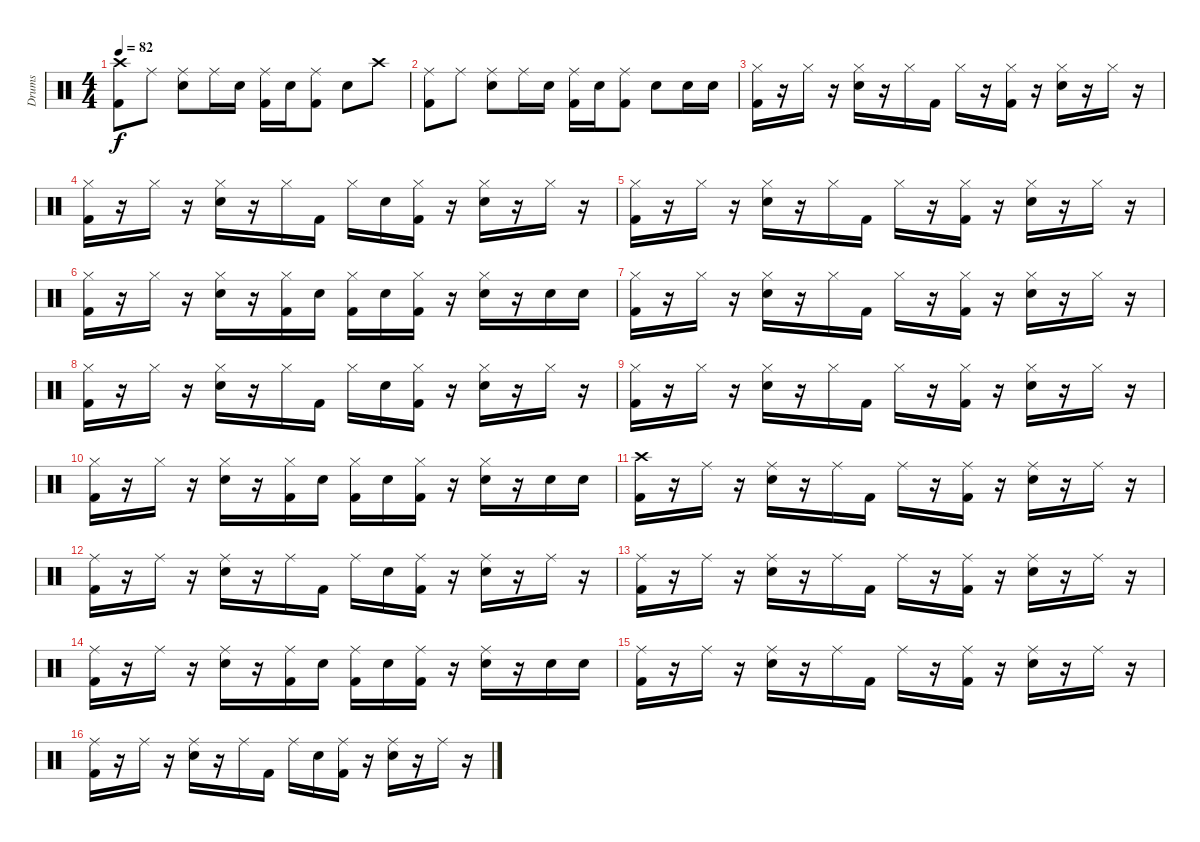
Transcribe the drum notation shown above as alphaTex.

\track ("Drums" "Drums") {instrument percussion}
\staff {score}
\articulation defaults
\ts (4 4)
\tempo 82
\clef neutral
\ks c
("Crash high (hit)" "Kick (hit) 2").8{dy f} "Ride (middle)".8 ("Ride (middle)" "Electric Snare (hit)").8 "Ride (middle)".16 "Electric Snare (hit)".16 ("Ride (middle)" "Kick (hit) 2").16 "Electric Snare (hit)".16 ("Ride (middle)" "Kick (hit) 2").8 "Electric Snare (hit)".8 "Crash high (hit)".8 |
("Ride (middle)" "Kick (hit) 2").8 "Ride (middle)".8 ("Ride (middle)" "Electric Snare (hit)").8 "Ride (middle)".16 "Electric Snare (hit)".16 ("Ride (middle)" "Kick (hit) 2").16 "Electric Snare (hit)".16 ("Ride (middle)" "Kick (hit) 2").8 "Electric Snare (hit)".8 "Electric Snare (hit)".16 "Electric Snare (hit)".16 |
("Hi-Hat (closed)" "Kick (hit) 2").16 r.16 "Hi-Hat (closed)".16 r.16 ("Hi-Hat (closed)" "Electric Snare (hit)").16 r.16 "Hi-Hat (closed)".16 "Kick (hit) 2".16 "Hi-Hat (closed)".16 r.16 ("Hi-Hat (closed)" "Kick (hit) 2").16 r.16 ("Hi-Hat (closed)" "Electric Snare (hit)").16 r.16 "Hi-Hat (closed)".16 r.16 |
("Hi-Hat (closed)" "Kick (hit) 2").16 r.16 "Hi-Hat (closed)".16 r.16 ("Hi-Hat (closed)" "Electric Snare (hit)").16 r.16 "Hi-Hat (closed)".16 "Kick (hit) 2".16 "Hi-Hat (closed)".16 "Electric Snare (hit)".16 ("Hi-Hat (closed)" "Kick (hit) 2").16 r.16 ("Hi-Hat (closed)" "Electric Snare (hit)").16 r.16 "Hi-Hat (closed)".16 r.16 |
("Hi-Hat (closed)" "Kick (hit) 2").16 r.16 "Hi-Hat (closed)".16 r.16 ("Hi-Hat (closed)" "Electric Snare (hit)").16 r.16 "Hi-Hat (closed)".16 "Kick (hit) 2".16 "Hi-Hat (closed)".16 r.16 ("Hi-Hat (closed)" "Kick (hit) 2").16 r.16 ("Hi-Hat (closed)" "Electric Snare (hit)").16 r.16 "Hi-Hat (closed)".16 r.16 |
("Hi-Hat (closed)" "Kick (hit) 2").16 r.16 "Hi-Hat (closed)".16 r.16 ("Hi-Hat (closed)" "Electric Snare (hit)").16 r.16 ("Hi-Hat (closed)" "Kick (hit) 2").16 "Electric Snare (hit)".16 ("Hi-Hat (closed)" "Kick (hit) 2").16 "Electric Snare (hit)".16 ("Hi-Hat (closed)" "Kick (hit) 2").16 r.16 ("Hi-Hat (closed)" "Electric Snare (hit)").16 r.16 "Electric Snare (hit)".16 "Electric Snare (hit)".16 |
("Hi-Hat (closed)" "Kick (hit) 2").16 r.16 "Hi-Hat (closed)".16 r.16 ("Hi-Hat (closed)" "Electric Snare (hit)").16 r.16 "Hi-Hat (closed)".16 "Kick (hit) 2".16 "Hi-Hat (closed)".16 r.16 ("Hi-Hat (closed)" "Kick (hit) 2").16 r.16 ("Hi-Hat (closed)" "Electric Snare (hit)").16 r.16 "Hi-Hat (closed)".16 r.16 |
("Hi-Hat (closed)" "Kick (hit) 2").16 r.16 "Hi-Hat (closed)".16 r.16 ("Hi-Hat (closed)" "Electric Snare (hit)").16 r.16 "Hi-Hat (closed)".16 "Kick (hit) 2".16 "Hi-Hat (closed)".16 "Electric Snare (hit)".16 ("Hi-Hat (closed)" "Kick (hit) 2").16 r.16 ("Hi-Hat (closed)" "Electric Snare (hit)").16 r.16 "Hi-Hat (closed)".16 r.16 |
("Hi-Hat (closed)" "Kick (hit) 2").16 r.16 "Hi-Hat (closed)".16 r.16 ("Hi-Hat (closed)" "Electric Snare (hit)").16 r.16 "Hi-Hat (closed)".16 "Kick (hit) 2".16 "Hi-Hat (closed)".16 r.16 ("Hi-Hat (closed)" "Kick (hit) 2").16 r.16 ("Hi-Hat (closed)" "Electric Snare (hit)").16 r.16 "Hi-Hat (closed)".16 r.16 |
("Hi-Hat (closed)" "Kick (hit) 2").16 r.16 "Hi-Hat (closed)".16 r.16 ("Hi-Hat (closed)" "Electric Snare (hit)").16 r.16 ("Hi-Hat (closed)" "Kick (hit) 2").16 "Electric Snare (hit)".16 ("Hi-Hat (closed)" "Kick (hit) 2").16 "Electric Snare (hit)".16 ("Hi-Hat (closed)" "Kick (hit) 2").16 r.16 ("Hi-Hat (closed)" "Electric Snare (hit)").16 r.16 "Electric Snare (hit)".16 "Electric Snare (hit)".16 |
("Crash high (hit)" "Kick (hit) 2").16 r.16 "Ride (middle)".16 r.16 ("Ride (middle)" "Electric Snare (hit)").16 r.16 "Ride (middle)".16 "Kick (hit) 2".16 "Ride (middle)".16 r.16 ("Ride (middle)" "Kick (hit) 2").16 r.16 ("Ride (middle)" "Electric Snare (hit)").16 r.16 "Ride (middle)".16 r.16 |
("Ride (middle)" "Kick (hit) 2").16 r.16 "Ride (middle)".16 r.16 ("Ride (middle)" "Electric Snare (hit)").16 r.16 "Ride (middle)".16 "Kick (hit) 2".16 "Ride (middle)".16 "Electric Snare (hit)".16 ("Ride (middle)" "Kick (hit) 2").16 r.16 ("Ride (middle)" "Electric Snare (hit)").16 r.16 "Ride (middle)".16 r.16 |
("Ride (middle)" "Kick (hit) 2").16 r.16 "Ride (middle)".16 r.16 ("Ride (middle)" "Electric Snare (hit)").16 r.16 "Ride (middle)".16 "Kick (hit) 2".16 "Ride (middle)".16 r.16 ("Ride (middle)" "Kick (hit) 2").16 r.16 ("Ride (middle)" "Electric Snare (hit)").16 r.16 "Ride (middle)".16 r.16 |
("Ride (middle)" "Kick (hit) 2").16 r.16 "Ride (middle)".16 r.16 ("Ride (middle)" "Electric Snare (hit)").16 r.16 ("Ride (middle)" "Kick (hit) 2").16 "Electric Snare (hit)".16 ("Ride (middle)" "Kick (hit) 2").16 "Electric Snare (hit)".16 ("Ride (middle)" "Kick (hit) 2").16 r.16 ("Ride (middle)" "Electric Snare (hit)").16 r.16 "Electric Snare (hit)".16 "Electric Snare (hit)".16 |
("Ride (middle)" "Kick (hit) 2").16 r.16 "Ride (middle)".16 r.16 ("Ride (middle)" "Electric Snare (hit)").16 r.16 "Ride (middle)".16 "Kick (hit) 2".16 "Ride (middle)".16 r.16 ("Ride (middle)" "Kick (hit) 2").16 r.16 ("Ride (middle)" "Electric Snare (hit)").16 r.16 "Ride (middle)".16 r.16 |
("Ride (middle)" "Kick (hit) 2").16 r.16 "Ride (middle)".16 r.16 ("Ride (middle)" "Electric Snare (hit)").16 r.16 "Ride (middle)".16 "Kick (hit) 2".16 "Ride (middle)".16 "Electric Snare (hit)".16 ("Ride (middle)" "Kick (hit) 2").16 r.16 ("Ride (middle)" "Electric Snare (hit)").16 r.16 "Ride (middle)".16 r.16
